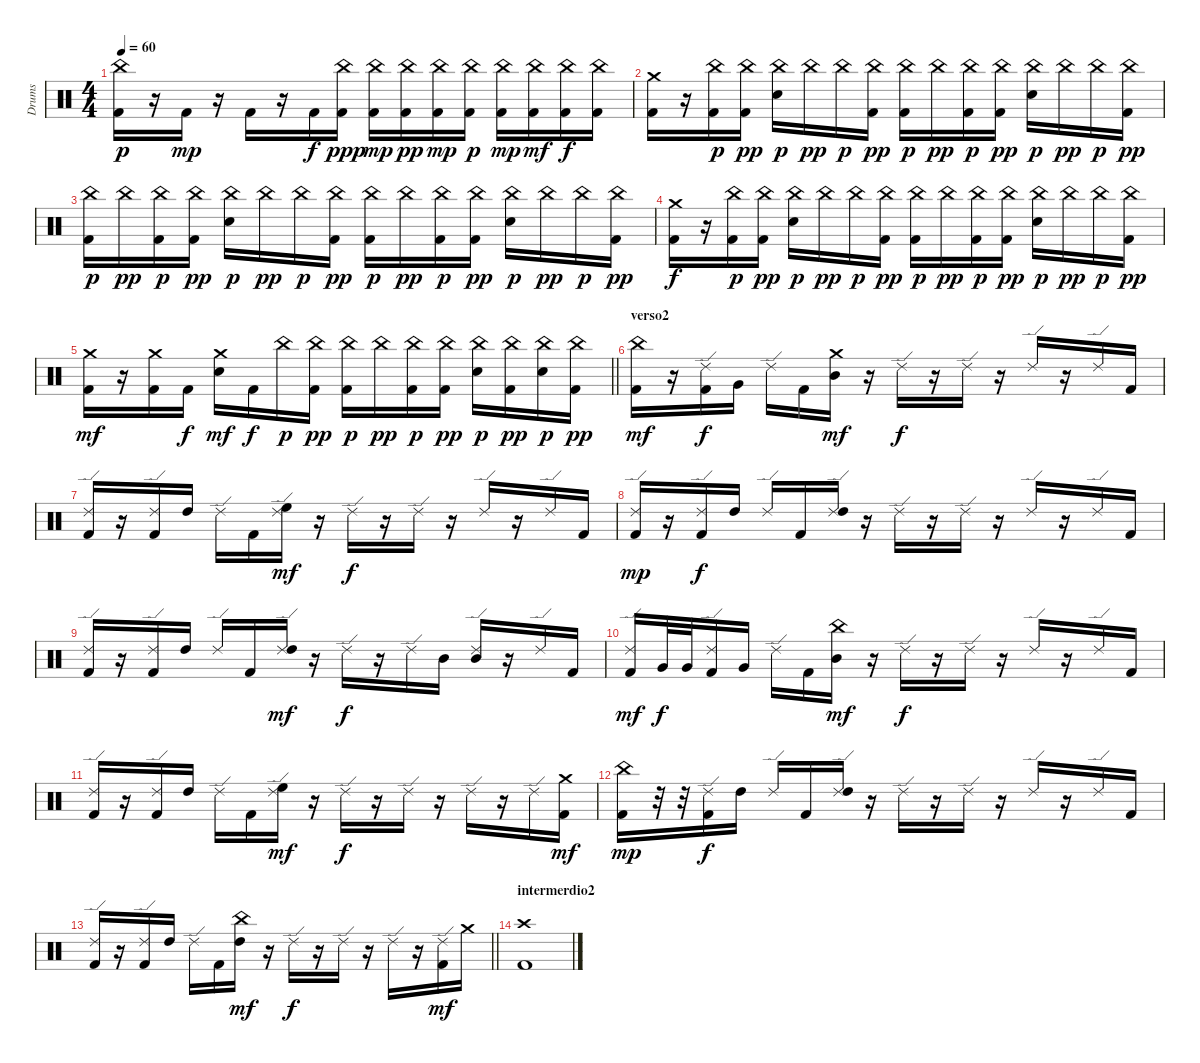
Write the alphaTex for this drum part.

\track ("Drums" "Drums") {instrument percussion}
\staff {score}
\articulation defaults
\ts (4 4)
\tempo 60
\clef neutral
\ks c
("China (hit)" "Kick (hit) 2").16{dy p} r.16 "Kick (hit) 2".16{dy mp} r.16 "Kick (hit) 2".16 r.16 "Kick (hit) 2".16{dy f} ("China (hit)" "Kick (hit) 2").16{dy ppp} ("China (hit)" "Kick (hit) 2").16{dy mp} ("China (hit)" "Kick (hit) 2").16{dy pp} ("China (hit)" "Kick (hit) 2").16{dy mp} ("China (hit)" "Kick (hit) 2").16{dy p} ("China (hit)" "Kick (hit) 2").16{dy mp} ("China (hit)" "Kick (hit) 2").16{dy mf} ("China (hit)" "Kick (hit) 2").16{dy f} ("China (hit)" "Kick (hit) 2").16 |
("Crash medium (hit)" "Kick (hit) 2").16 r.16 ("China (hit)" "Kick (hit) 2").16{dy p} ("China (hit)" "Kick (hit) 2").16{dy pp} ("China (hit)" "Snare (hit) 2").16{dy p} "China (hit)".16{dy pp} "China (hit)".16{dy p} ("China (hit)" "Kick (hit) 2").16{dy pp} ("China (hit)" "Kick (hit) 2").16{dy p} "China (hit)".16{dy pp} ("China (hit)" "Kick (hit) 2").16{dy p} ("China (hit)" "Kick (hit) 2").16{dy pp} ("China (hit)" "Snare (hit) 2").16{dy p} "China (hit)".16{dy pp} "China (hit)".16{dy p} ("China (hit)" "Kick (hit) 2").16{dy pp} |
("China (hit)" "Kick (hit) 2").16{dy p} "China (hit)".16{dy pp} ("China (hit)" "Kick (hit) 2").16{dy p} ("China (hit)" "Kick (hit) 2").16{dy pp} ("China (hit)" "Snare (hit) 2").16{dy p} "China (hit)".16{dy pp} "China (hit)".16{dy p} ("China (hit)" "Kick (hit) 2").16{dy pp} ("China (hit)" "Kick (hit) 2").16{dy p} "China (hit)".16{dy pp} ("China (hit)" "Kick (hit) 2").16{dy p} ("China (hit)" "Kick (hit) 2").16{dy pp} ("China (hit)" "Snare (hit) 2").16{dy p} "China (hit)".16{dy pp} "China (hit)".16{dy p} ("China (hit)" "Kick (hit) 2").16{dy pp} |
("Crash medium (hit)" "Kick (hit) 2").16{dy f} r.16 ("China (hit)" "Kick (hit) 2").16{dy p} ("China (hit)" "Kick (hit) 2").16{dy pp} ("China (hit)" "Snare (hit) 2").16{dy p} "China (hit)".16{dy pp} "China (hit)".16{dy p} ("China (hit)" "Kick (hit) 2").16{dy pp} ("China (hit)" "Kick (hit) 2").16{dy p} "China (hit)".16{dy pp} ("China (hit)" "Kick (hit) 2").16{dy p} ("China (hit)" "Kick (hit) 2").16{dy pp} ("China (hit)" "Snare (hit) 2").16{dy p} "China (hit)".16{dy pp} "China (hit)".16{dy p} ("China (hit)" "Kick (hit) 2").16{dy pp} |
\barLineRight lightlight
("Crash medium (hit)" "Kick (hit) 2").16{dy mf} r.16 ("Crash medium (hit)" "Kick (hit) 2").16 "Kick (hit) 2".16{dy f} ("Crash medium (hit)" "Snare (hit) 2").16{dy mf} "Kick (hit) 2".16{dy f} "China (hit)".16{dy p} ("China (hit)" "Kick (hit) 2").16{dy pp} ("China (hit)" "Kick (hit) 2").16{dy p} "China (hit)".16{dy pp} ("China (hit)" "Kick (hit) 2").16{dy p} ("China (hit)" "Kick (hit) 2").16{dy pp} ("China (hit)" "Snare (hit) 2").16{dy p} ("China (hit)" "Kick (hit) 2").16{dy pp} ("China (hit)" "Snare (hit) 2").16{dy p} ("China (hit)" "Kick (hit) 2").16{dy pp} |
\section ("" "verso2")
("China (hit)" "Kick (hit) 2").16{dy mf} r.16 ("Ride (edge) 2" "Kick (hit) 2").16{dy f} "Very Low Tom (hit)".16 "Ride (edge) 2".16 "Kick (hit) 2".16 ("Crash medium (hit)" "Mid Tom (hit)").16{dy mf} r.16 "Ride (edge) 2".16{dy f} r.16 "Ride (edge) 2".16 r.16 "Ride (edge) 2".16 r.16 "Ride (edge) 2".16 "Kick (hit) 2".16 |
("Ride (edge) 2" "Kick (hit) 2").16 r.16 ("Ride (edge) 2" "Kick (hit) 2").16 "High Tom (hit)".16 "Ride (edge) 2".16 "Kick (hit) 2".16 ("Ride (edge) 2" "High Floor Tom (hit)").16{dy mf} r.16 "Ride (edge) 2".16{dy f} r.16 "Ride (edge) 2".16 r.16 "Ride (edge) 2".16 r.16 "Ride (edge) 2".16 "Kick (hit) 2".16 |
("Ride (edge) 2" "Kick (hit) 2").16{dy mp} r.16 ("Ride (edge) 2" "Kick (hit) 2").16{dy f} "High Tom (hit)".16 "Ride (edge) 2".16 "Kick (hit) 2".16 ("Ride (edge) 2" "High Tom (hit)").16 r.16 "Ride (edge) 2".16 r.16 "Ride (edge) 2".16 r.16 "Ride (edge) 2".16 r.16 "Ride (edge) 2".16 "Kick (hit) 2".16 |
("Ride (edge) 2" "Kick (hit) 2").16 r.16 ("Ride (edge) 2" "Kick (hit) 2").16 "High Tom (hit)".16 "Ride (edge) 2".16 "Kick (hit) 2".16 ("Ride (edge) 2" "High Tom (hit)").16{dy mf} r.16 "Ride (edge) 2".16{dy f} r.16 "Ride (edge) 2".16 "Mid Tom (hit)".16 ("Ride (edge) 2" "Mid Tom (hit)").16 r.16 "Ride (edge) 2".16 "Kick (hit) 2".16 |
("Ride (edge) 2" "Kick (hit) 2").16{dy mf} "Very Low Tom (hit)".32{dy f} "Very Low Tom (hit)".32 ("Ride (edge) 2" "Kick (hit) 2").16 "Very Low Tom (hit)".16 "Ride (edge) 2".16 "Kick (hit) 2".16 ("China (hit)" "Mid Tom (hit)").16{dy mf} r.16 "Ride (edge) 2".16{dy f} r.16 "Ride (edge) 2".16 r.16 "Ride (edge) 2".16 r.16 "Ride (edge) 2".16 "Kick (hit) 2".16 |
("Ride (edge) 2" "Kick (hit) 2").16 r.16 ("Ride (edge) 2" "Kick (hit) 2").16 "High Tom (hit)".16 "Ride (edge) 2".16 "Kick (hit) 2".16 ("Ride (edge) 2" "High Floor Tom (hit)").16{dy mf} r.16 "Ride (edge) 2".16{dy f} r.16 "Ride (edge) 2".16 r.16 "Ride (edge) 2".16 r.16 "Ride (edge) 2".16 ("Crash medium (hit)" "Kick (hit) 2").16{dy mf} |
("China (hit)" "Kick (hit) 2").16{dy mp} r.32 r.32 ("Ride (edge) 2" "Kick (hit) 2").16{dy f} "High Tom (hit)".16 "Ride (edge) 2".16 "Kick (hit) 2".16 ("Ride (edge) 2" "High Tom (hit)").16 r.16 "Ride (edge) 2".16 r.16 "Ride (edge) 2".16 r.16 "Ride (edge) 2".16 r.16 "Ride (edge) 2".16 "Kick (hit) 2".16 |
\barLineRight lightlight
("Ride (edge) 2" "Kick (hit) 2").16 r.16 ("Ride (edge) 2" "Kick (hit) 2").16 "High Tom (hit)".16 "Ride (edge) 2".16 "Kick (hit) 2".16 ("China (hit)" "High Tom (hit)").16{dy mf} r.16 "Ride (edge) 2".16{dy f} r.16 "Ride (edge) 2".16 r.16 "Ride (edge) 2".16 r.16 ("Ride (edge) 2" "Kick (hit) 2").16{dy mf} "Crash medium (hit)".16 |
\section ("" "intermerdio2")
("Crash high (hit)" "Kick (hit) 2").1
